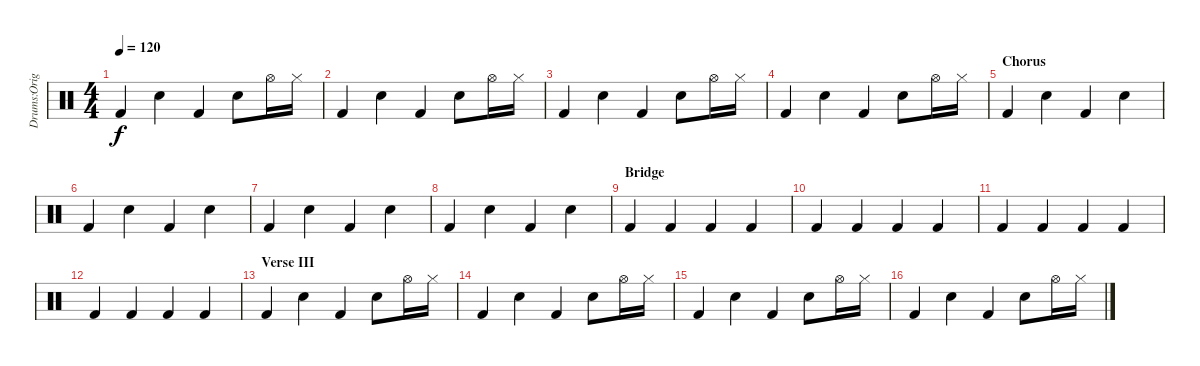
\track ("Drums:Original" "Drums:Orig") {instrument percussion}
\staff {score}
\articulation defaults
\ts (4 4)
\tempo 120
\clef neutral
\ks c "Kick (hit) 2".4{dy f} "Snare (hit) 2".4 "Kick (hit) 2".4 "Snare (hit) 2".8 "Hi-Hat (open)".16 "Hi-Hat (closed)".16
|
"Kick (hit) 2".4 "Snare (hit) 2".4 "Kick (hit) 2".4 "Snare (hit) 2".8 "Hi-Hat (open)".16 "Hi-Hat (closed)".16 |
"Kick (hit) 2".4 "Snare (hit) 2".4 "Kick (hit) 2".4 "Snare (hit) 2".8 "Hi-Hat (open)".16 "Hi-Hat (closed)".16 |
"Kick (hit) 2".4 "Snare (hit) 2".4 "Kick (hit) 2".4 "Snare (hit) 2".8 "Hi-Hat (open)".16 "Hi-Hat (closed)".16 |
\section ("" "Chorus")
"Kick (hit) 2".4 "Snare (hit) 2".4 "Kick (hit) 2".4 "Snare (hit) 2".4 |
"Kick (hit) 2".4 "Snare (hit) 2".4 "Kick (hit) 2".4 "Snare (hit) 2".4 |
"Kick (hit) 2".4 "Snare (hit) 2".4 "Kick (hit) 2".4 "Snare (hit) 2".4 |
"Kick (hit) 2".4 "Snare (hit) 2".4 "Kick (hit) 2".4 "Snare (hit) 2".4 |
\section ("" "Bridge")
"Kick (hit) 2".4 "Kick (hit) 2".4 "Kick (hit) 2".4 "Kick (hit) 2".4 |
"Kick (hit) 2".4 "Kick (hit) 2".4 "Kick (hit) 2".4 "Kick (hit) 2".4 |
"Kick (hit) 2".4 "Kick (hit) 2".4 "Kick (hit) 2".4 "Kick (hit) 2".4 |
"Kick (hit) 2".4 "Kick (hit) 2".4 "Kick (hit) 2".4 "Kick (hit) 2".4 |
\section ("" "Verse III")
"Kick (hit) 2".4 "Snare (hit) 2".4 "Kick (hit) 2".4 "Snare (hit) 2".8 "Hi-Hat (open)".16 "Hi-Hat (closed)".16 |
"Kick (hit) 2".4 "Snare (hit) 2".4 "Kick (hit) 2".4 "Snare (hit) 2".8 "Hi-Hat (open)".16 "Hi-Hat (closed)".16 |
"Kick (hit) 2".4 "Snare (hit) 2".4 "Kick (hit) 2".4 "Snare (hit) 2".8 "Hi-Hat (open)".16 "Hi-Hat (closed)".16 |
"Kick (hit) 2".4 "Snare (hit) 2".4 "Kick (hit) 2".4 "Snare (hit) 2".8 "Hi-Hat (open)".16 "Hi-Hat (closed)".16
